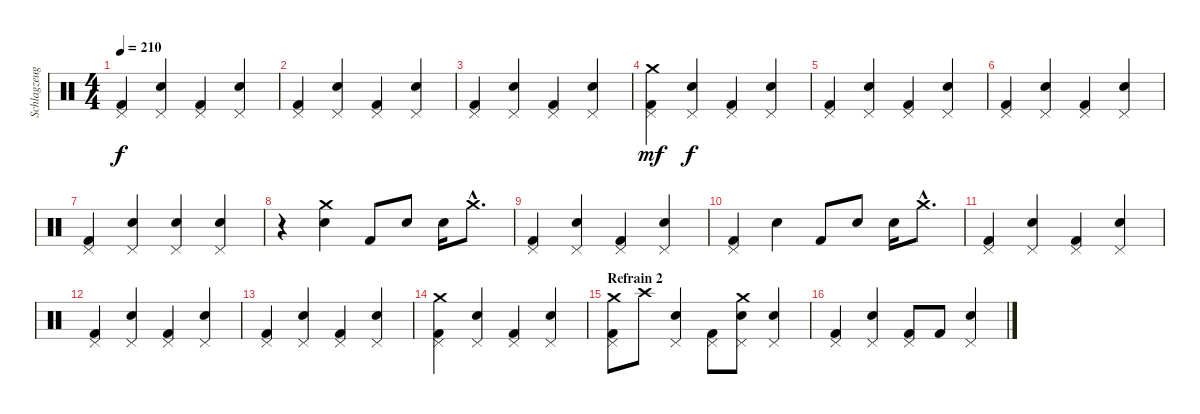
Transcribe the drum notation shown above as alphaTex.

\track ("Schlagzeug" "Schlagzeug") {instrument percussion}
\staff {score}
\articulation defaults
\ts (4 4)
\tempo 210
\clef neutral
\ks c
("Pedal Hi-Hat (hit)" "Kick (hit) 2").4{dy f} ("Pedal Hi-Hat (hit)" "Electric Snare (hit)").4 ("Pedal Hi-Hat (hit)" "Kick (hit) 2").4 ("Pedal Hi-Hat (hit)" "Electric Snare (hit)").4 |
("Pedal Hi-Hat (hit)" "Kick (hit) 2").4 ("Pedal Hi-Hat (hit)" "Electric Snare (hit)").4 ("Pedal Hi-Hat (hit)" "Kick (hit) 2").4 ("Pedal Hi-Hat (hit)" "Electric Snare (hit)").4 |
("Pedal Hi-Hat (hit)" "Kick (hit) 2").4 ("Pedal Hi-Hat (hit)" "Electric Snare (hit)").4 ("Pedal Hi-Hat (hit)" "Kick (hit) 2").4 ("Pedal Hi-Hat (hit)" "Electric Snare (hit)").4 |
("Pedal Hi-Hat (hit)" "Crash medium (hit)" "Kick (hit) 2").4{dy mf} ("Pedal Hi-Hat (hit)" "Electric Snare (hit)").4{dy f} ("Pedal Hi-Hat (hit)" "Kick (hit) 2").4 ("Pedal Hi-Hat (hit)" "Electric Snare (hit)").4 |
("Pedal Hi-Hat (hit)" "Kick (hit) 2").4 ("Pedal Hi-Hat (hit)" "Electric Snare (hit)").4 ("Pedal Hi-Hat (hit)" "Kick (hit) 2").4 ("Pedal Hi-Hat (hit)" "Electric Snare (hit)").4 |
("Pedal Hi-Hat (hit)" "Kick (hit) 2").4 ("Pedal Hi-Hat (hit)" "Electric Snare (hit)").4 ("Pedal Hi-Hat (hit)" "Kick (hit) 2").4 ("Pedal Hi-Hat (hit)" "Electric Snare (hit)").4 |
("Pedal Hi-Hat (hit)" "Kick (hit) 2").4 ("Pedal Hi-Hat (hit)" "Electric Snare (hit)").4 ("Pedal Hi-Hat (hit)" "Electric Snare (hit)").4 ("Pedal Hi-Hat (hit)" "Electric Snare (hit)").4 |
r.4 ("Crash medium (hit)" "Electric Snare (hit)").4 "Kick (hit) 2".8 "Electric Snare (hit)".8 "Electric Snare (hit)".16 "Crash medium (hit)"{hac}.8{d} |
("Pedal Hi-Hat (hit)" "Kick (hit) 2").4 ("Pedal Hi-Hat (hit)" "Electric Snare (hit)").4 ("Pedal Hi-Hat (hit)" "Kick (hit) 2").4 ("Pedal Hi-Hat (hit)" "Electric Snare (hit)").4 |
("Pedal Hi-Hat (hit)" "Kick (hit) 2").4 "Electric Snare (hit)".4 "Kick (hit) 2".8 "Electric Snare (hit)".8 "Electric Snare (hit)".16 "Crash medium (hit)"{hac}.8{d} |
("Pedal Hi-Hat (hit)" "Kick (hit) 2").4 ("Pedal Hi-Hat (hit)" "Electric Snare (hit)").4 ("Pedal Hi-Hat (hit)" "Kick (hit) 2").4 ("Pedal Hi-Hat (hit)" "Electric Snare (hit)").4 |
("Pedal Hi-Hat (hit)" "Kick (hit) 2").4 ("Pedal Hi-Hat (hit)" "Electric Snare (hit)").4 ("Pedal Hi-Hat (hit)" "Kick (hit) 2").4 ("Pedal Hi-Hat (hit)" "Electric Snare (hit)").4 |
("Pedal Hi-Hat (hit)" "Kick (hit) 2").4 ("Pedal Hi-Hat (hit)" "Electric Snare (hit)").4 ("Pedal Hi-Hat (hit)" "Kick (hit) 2").4 ("Pedal Hi-Hat (hit)" "Electric Snare (hit)").4 |
("Pedal Hi-Hat (hit)" "Kick (hit) 2" "Crash medium (hit)").4 ("Pedal Hi-Hat (hit)" "Electric Snare (hit)").4 ("Pedal Hi-Hat (hit)" "Kick (hit) 2").4 ("Pedal Hi-Hat (hit)" "Electric Snare (hit)").4 |
\section ("" "Refrain 2")
("Pedal Hi-Hat (hit)" "Kick (hit) 2" "Crash medium (hit)").8 "Crash high (hit)".8 ("Pedal Hi-Hat (hit)" "Electric Snare (hit)").4 ("Pedal Hi-Hat (hit)" "Kick (hit) 2").8 ("Pedal Hi-Hat (hit)" "Electric Snare (hit)" "Crash medium (hit)").8 ("Pedal Hi-Hat (hit)" "Electric Snare (hit)").4 |
("Pedal Hi-Hat (hit)" "Kick (hit) 2").4 ("Pedal Hi-Hat (hit)" "Electric Snare (hit)").4 ("Pedal Hi-Hat (hit)" "Kick (hit) 2").8 "Kick (hit) 2".8 ("Pedal Hi-Hat (hit)" "Electric Snare (hit)").4
